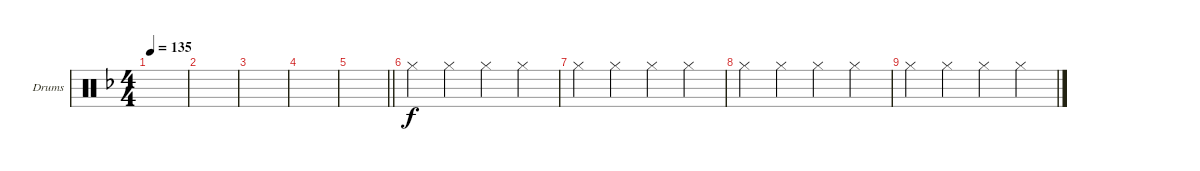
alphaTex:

\bracketExtendMode groupsimilarinstruments
\firstSystemTrackNameOrientation horizontal
\otherSystemsTrackNameOrientation horizontal
\track ("Drumkit" "Drums") {instrument percussion}
\staff {score}
\articulation defaults
\ts (4 4)
\tempo 135
\clef neutral
\ks dminor
|
|
|
|
\barLineRight lightlight
|
"Hi-Hat (closed)".4 "Hi-Hat (closed)".4 "Hi-Hat (closed)".4 "Hi-Hat (closed)".4 |
"Hi-Hat (closed)".4 "Hi-Hat (closed)".4 "Hi-Hat (closed)".4 "Hi-Hat (closed)".4 |
"Hi-Hat (closed)".4 "Hi-Hat (closed)".4 "Hi-Hat (closed)".4 "Hi-Hat (closed)".4 |
"Hi-Hat (closed)".4 "Hi-Hat (closed)".4 "Hi-Hat (closed)".4 "Hi-Hat (closed)".4
